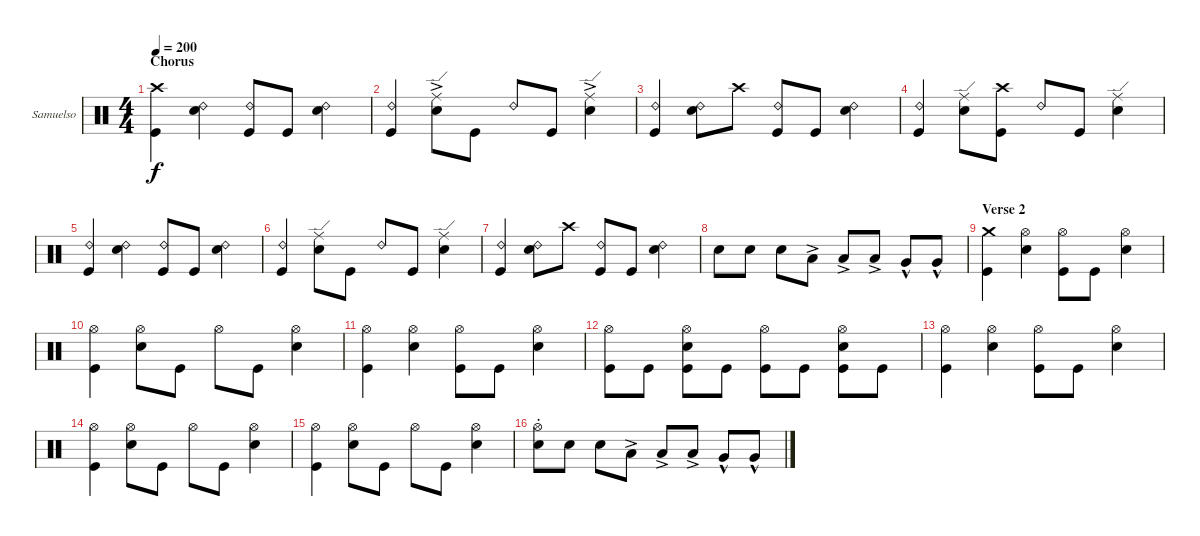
\bracketExtendMode groupsimilarinstruments
\firstSystemTrackNameOrientation horizontal
\otherSystemsTrackNameOrientation horizontal
\track ("Gar Samuelson" "Samuelso") {instrument percussion}
\staff {score}
\articulation defaults
\ts (4 4)
\section ("" "Chorus")
\tempo 200
\clef neutral
\ks c
("Crash high (hit)" "Kick (hit)").4{dy f} ("Ride (bell) 2" "Snare (hit) 2").4 ("Kick (hit)" "Ride (bell) 2").8 "Kick (hit)".8 ("Ride (bell) 2" "Snare (hit) 2").4 |
("Kick (hit)" "Ride (bell) 2").4 ("Ride (edge)"{ac} "Snare (hit) 2").8 "Kick (hit)".8 "Ride (bell) 2".8 "Kick (hit)".8 ("Ride (edge)"{ac} "Snare (hit) 2").4 |
("Kick (hit)" "Ride (bell) 2").4 ("Ride (bell) 2" "Snare (hit) 2").8 "Crash high (hit)".8 ("Kick (hit)" "Ride (bell) 2").8 "Kick (hit)".8 ("Ride (bell) 2" "Snare (hit) 2").4 |
("Kick (hit)" "Ride (bell) 2").4 ("Ride (edge)" "Snare (hit) 2").8 ("Kick (hit)" "Crash high (hit)").8 "Ride (bell) 2".8 "Kick (hit)".8 ("Ride (edge)" "Snare (hit) 2").4 |
("Kick (hit)" "Ride (bell) 2").4 ("Ride (bell) 2" "Snare (hit) 2").4 ("Kick (hit)" "Ride (bell) 2").8 "Kick (hit)".8 ("Ride (bell) 2" "Snare (hit) 2").4 |
("Kick (hit)" "Ride (bell) 2").4 ("Ride (edge)" "Snare (hit) 2").8 "Kick (hit)".8 "Ride (bell) 2".8 "Kick (hit)".8 ("Ride (edge)" "Snare (hit) 2").4 |
("Kick (hit)" "Ride (bell) 2").4 ("Ride (bell) 2" "Snare (hit) 2").8 "Crash high (hit)".8 ("Kick (hit)" "Ride (bell) 2").8 "Kick (hit)".8 ("Ride (bell) 2" "Snare (hit) 2").4 |
"Snare (hit) 2".8 "Snare (hit) 2".8 "Snare (hit) 2".8 "Low Tom (hit)"{ac}.8 "Low Tom (hit)"{ac}.8 "Low Tom (hit)"{ac}.8 "Very Low Tom (hit)"{hac}.8 "Very Low Tom (hit)"{hac}.8 |
\section ("" "Verse 2")
("Crash medium (hit)" "Kick (hit)").4 ("Hi-Hat (open)" "Snare (hit) 2").4 ("Hi-Hat (open)" "Kick (hit)").8 "Kick (hit)".8 ("Hi-Hat (open)" "Snare (hit) 2").4 |
("Hi-Hat (open)" "Kick (hit)").4 ("Hi-Hat (open)" "Snare (hit) 2").8 "Kick (hit)".8 "Hi-Hat (open)".8 "Kick (hit)".8 ("Hi-Hat (open)" "Snare (hit) 2").4 |
("Kick (hit)" "Hi-Hat (open)").4 ("Hi-Hat (open)" "Snare (hit) 2").4 ("Hi-Hat (open)" "Kick (hit)").8 "Kick (hit)".8 ("Hi-Hat (open)" "Snare (hit) 2").4 |
("Hi-Hat (open)" "Kick (hit)").8 "Kick (hit)".8 ("Hi-Hat (open)" "Snare (hit) 2" "Kick (hit)").8 "Kick (hit)".8 ("Hi-Hat (open)" "Kick (hit)").8 "Kick (hit)".8 ("Hi-Hat (open)" "Snare (hit) 2" "Kick (hit)").8 "Kick (hit)".8 |
("Kick (hit)" "Hi-Hat (open)").4 ("Hi-Hat (open)" "Snare (hit) 2").4 ("Hi-Hat (open)" "Kick (hit)").8 "Kick (hit)".8 ("Hi-Hat (open)" "Snare (hit) 2").4 |
("Hi-Hat (open)" "Kick (hit)").4 ("Hi-Hat (open)" "Snare (hit) 2").8 "Kick (hit)".8 "Hi-Hat (open)".8 "Kick (hit)".8 ("Hi-Hat (open)" "Snare (hit) 2").4 |
("Hi-Hat (open)" "Kick (hit)").4 ("Hi-Hat (open)" "Snare (hit) 2").8 "Kick (hit)".8 "Hi-Hat (open)".8 "Kick (hit)".8 ("Hi-Hat (open)" "Snare (hit) 2").4 |
("Snare (hit) 2" "Hi-Hat (open)"{st}).8 "Snare (hit) 2".8 "Snare (hit) 2".8 "Low Tom (hit)"{ac}.8 "Low Tom (hit)"{ac}.8 "Low Tom (hit)"{ac}.8 "Very Low Tom (hit)"{hac}.8 "Very Low Tom (hit)"{hac}.8
